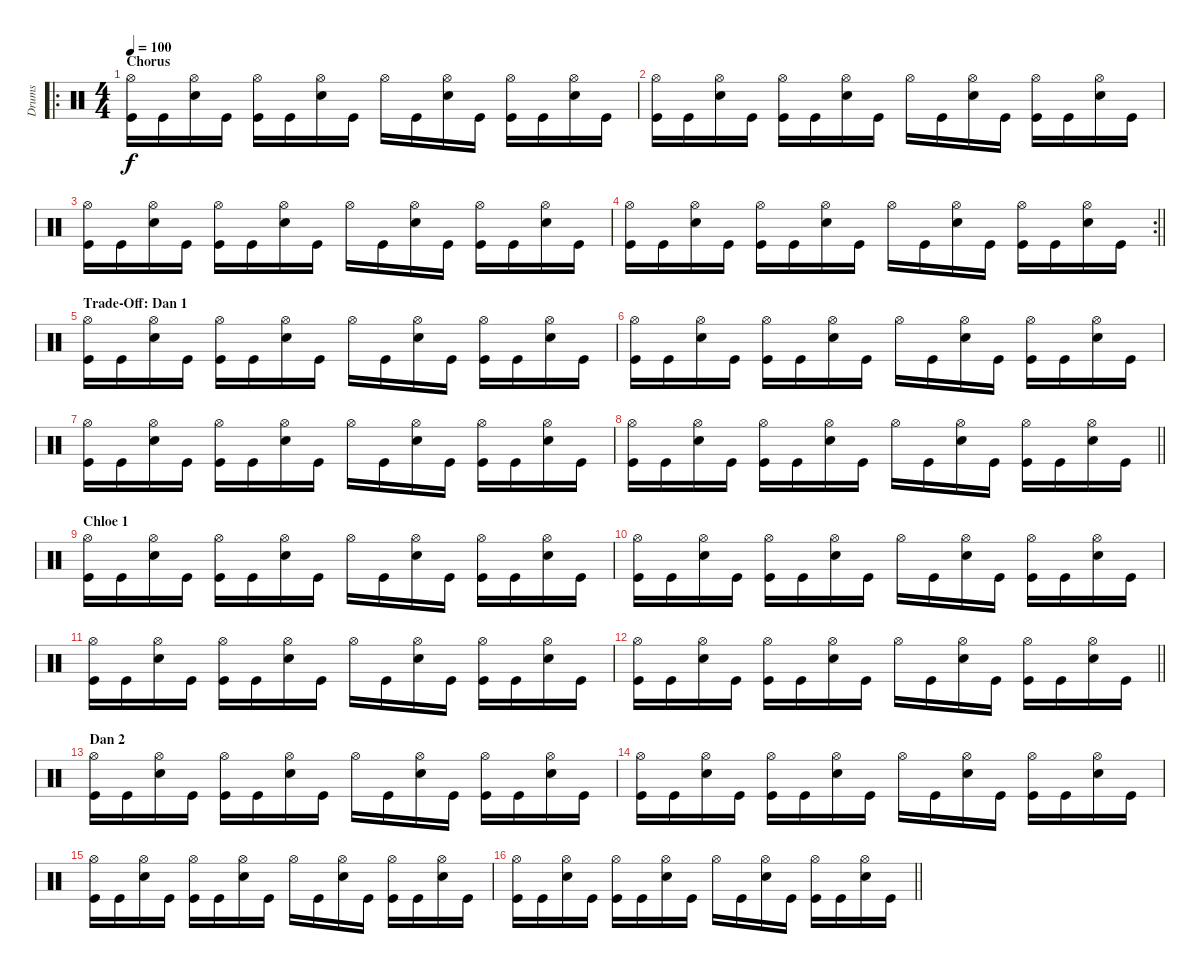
\track ("Drums" "Drums") {instrument percussion}
\staff {score}
\articulation defaults
\ro
\ts (4 4)
\section ("" "Chorus")
\tempo 100
\clef neutral
\ks c
("Hi-Hat (open)" "Kick (hit)").16{dy f} "Kick (hit)".16 ("Hi-Hat (open)" "Snare (hit) 2").16 "Kick (hit)".16 ("Hi-Hat (open)" "Kick (hit)").16 "Kick (hit)".16 ("Hi-Hat (open)" "Snare (hit) 2").16 "Kick (hit)".16 "Hi-Hat (open)".16 "Kick (hit)".16 ("Hi-Hat (open)" "Snare (hit) 2").16 "Kick (hit)".16 ("Hi-Hat (open)" "Kick (hit)").16 "Kick (hit)".16 ("Hi-Hat (open)" "Snare (hit) 2").16 "Kick (hit)".16 |
("Hi-Hat (open)" "Kick (hit)").16 "Kick (hit)".16 ("Hi-Hat (open)" "Snare (hit) 2").16 "Kick (hit)".16 ("Hi-Hat (open)" "Kick (hit)").16 "Kick (hit)".16 ("Hi-Hat (open)" "Snare (hit) 2").16 "Kick (hit)".16 "Hi-Hat (open)".16 "Kick (hit)".16 ("Hi-Hat (open)" "Snare (hit) 2").16 "Kick (hit)".16 ("Hi-Hat (open)" "Kick (hit)").16 "Kick (hit)".16 ("Hi-Hat (open)" "Snare (hit) 2").16 "Kick (hit)".16 |
("Hi-Hat (open)" "Kick (hit)").16 "Kick (hit)".16 ("Hi-Hat (open)" "Snare (hit) 2").16 "Kick (hit)".16 ("Hi-Hat (open)" "Kick (hit)").16 "Kick (hit)".16 ("Hi-Hat (open)" "Snare (hit) 2").16 "Kick (hit)".16 "Hi-Hat (open)".16 "Kick (hit)".16 ("Hi-Hat (open)" "Snare (hit) 2").16 "Kick (hit)".16 ("Hi-Hat (open)" "Kick (hit)").16 "Kick (hit)".16 ("Hi-Hat (open)" "Snare (hit) 2").16 "Kick (hit)".16 |
\rc 2
\barLineRight lightlight
("Hi-Hat (open)" "Kick (hit)").16 "Kick (hit)".16 ("Hi-Hat (open)" "Snare (hit) 2").16 "Kick (hit)".16 ("Hi-Hat (open)" "Kick (hit)").16 "Kick (hit)".16 ("Hi-Hat (open)" "Snare (hit) 2").16 "Kick (hit)".16 "Hi-Hat (open)".16 "Kick (hit)".16 ("Hi-Hat (open)" "Snare (hit) 2").16 "Kick (hit)".16 ("Hi-Hat (open)" "Kick (hit)").16 "Kick (hit)".16 ("Hi-Hat (open)" "Snare (hit) 2").16 "Kick (hit)".16 |
\section ("" "Trade-Off: Dan 1")
("Hi-Hat (open)" "Kick (hit)").16 "Kick (hit)".16 ("Hi-Hat (open)" "Snare (hit) 2").16 "Kick (hit)".16 ("Hi-Hat (open)" "Kick (hit)").16 "Kick (hit)".16 ("Hi-Hat (open)" "Snare (hit) 2").16 "Kick (hit)".16 "Hi-Hat (open)".16 "Kick (hit)".16 ("Hi-Hat (open)" "Snare (hit) 2").16 "Kick (hit)".16 ("Hi-Hat (open)" "Kick (hit)").16 "Kick (hit)".16 ("Hi-Hat (open)" "Snare (hit) 2").16 "Kick (hit)".16 |
("Hi-Hat (open)" "Kick (hit)").16 "Kick (hit)".16 ("Hi-Hat (open)" "Snare (hit) 2").16 "Kick (hit)".16 ("Hi-Hat (open)" "Kick (hit)").16 "Kick (hit)".16 ("Hi-Hat (open)" "Snare (hit) 2").16 "Kick (hit)".16 "Hi-Hat (open)".16 "Kick (hit)".16 ("Hi-Hat (open)" "Snare (hit) 2").16 "Kick (hit)".16 ("Hi-Hat (open)" "Kick (hit)").16 "Kick (hit)".16 ("Hi-Hat (open)" "Snare (hit) 2").16 "Kick (hit)".16 |
("Hi-Hat (open)" "Kick (hit)").16 "Kick (hit)".16 ("Hi-Hat (open)" "Snare (hit) 2").16 "Kick (hit)".16 ("Hi-Hat (open)" "Kick (hit)").16 "Kick (hit)".16 ("Hi-Hat (open)" "Snare (hit) 2").16 "Kick (hit)".16 "Hi-Hat (open)".16 "Kick (hit)".16 ("Hi-Hat (open)" "Snare (hit) 2").16 "Kick (hit)".16 ("Hi-Hat (open)" "Kick (hit)").16 "Kick (hit)".16 ("Hi-Hat (open)" "Snare (hit) 2").16 "Kick (hit)".16 |
\barLineRight lightlight
("Hi-Hat (open)" "Kick (hit)").16 "Kick (hit)".16 ("Hi-Hat (open)" "Snare (hit) 2").16 "Kick (hit)".16 ("Hi-Hat (open)" "Kick (hit)").16 "Kick (hit)".16 ("Hi-Hat (open)" "Snare (hit) 2").16 "Kick (hit)".16 "Hi-Hat (open)".16 "Kick (hit)".16 ("Hi-Hat (open)" "Snare (hit) 2").16 "Kick (hit)".16 ("Hi-Hat (open)" "Kick (hit)").16 "Kick (hit)".16 ("Hi-Hat (open)" "Snare (hit) 2").16 "Kick (hit)".16 |
\section ("" "Chloe 1")
("Hi-Hat (open)" "Kick (hit)").16 "Kick (hit)".16 ("Hi-Hat (open)" "Snare (hit) 2").16 "Kick (hit)".16 ("Hi-Hat (open)" "Kick (hit)").16 "Kick (hit)".16 ("Hi-Hat (open)" "Snare (hit) 2").16 "Kick (hit)".16 "Hi-Hat (open)".16 "Kick (hit)".16 ("Hi-Hat (open)" "Snare (hit) 2").16 "Kick (hit)".16 ("Hi-Hat (open)" "Kick (hit)").16 "Kick (hit)".16 ("Hi-Hat (open)" "Snare (hit) 2").16 "Kick (hit)".16 |
("Hi-Hat (open)" "Kick (hit)").16 "Kick (hit)".16 ("Hi-Hat (open)" "Snare (hit) 2").16 "Kick (hit)".16 ("Hi-Hat (open)" "Kick (hit)").16 "Kick (hit)".16 ("Hi-Hat (open)" "Snare (hit) 2").16 "Kick (hit)".16 "Hi-Hat (open)".16 "Kick (hit)".16 ("Hi-Hat (open)" "Snare (hit) 2").16 "Kick (hit)".16 ("Hi-Hat (open)" "Kick (hit)").16 "Kick (hit)".16 ("Hi-Hat (open)" "Snare (hit) 2").16 "Kick (hit)".16 |
("Hi-Hat (open)" "Kick (hit)").16 "Kick (hit)".16 ("Hi-Hat (open)" "Snare (hit) 2").16 "Kick (hit)".16 ("Hi-Hat (open)" "Kick (hit)").16 "Kick (hit)".16 ("Hi-Hat (open)" "Snare (hit) 2").16 "Kick (hit)".16 "Hi-Hat (open)".16 "Kick (hit)".16 ("Hi-Hat (open)" "Snare (hit) 2").16 "Kick (hit)".16 ("Hi-Hat (open)" "Kick (hit)").16 "Kick (hit)".16 ("Hi-Hat (open)" "Snare (hit) 2").16 "Kick (hit)".16 |
\barLineRight lightlight
("Hi-Hat (open)" "Kick (hit)").16 "Kick (hit)".16 ("Hi-Hat (open)" "Snare (hit) 2").16 "Kick (hit)".16 ("Hi-Hat (open)" "Kick (hit)").16 "Kick (hit)".16 ("Hi-Hat (open)" "Snare (hit) 2").16 "Kick (hit)".16 "Hi-Hat (open)".16 "Kick (hit)".16 ("Hi-Hat (open)" "Snare (hit) 2").16 "Kick (hit)".16 ("Hi-Hat (open)" "Kick (hit)").16 "Kick (hit)".16 ("Hi-Hat (open)" "Snare (hit) 2").16 "Kick (hit)".16 |
\section ("" "Dan 2")
("Hi-Hat (open)" "Kick (hit)").16 "Kick (hit)".16 ("Hi-Hat (open)" "Snare (hit) 2").16 "Kick (hit)".16 ("Hi-Hat (open)" "Kick (hit)").16 "Kick (hit)".16 ("Hi-Hat (open)" "Snare (hit) 2").16 "Kick (hit)".16 "Hi-Hat (open)".16 "Kick (hit)".16 ("Hi-Hat (open)" "Snare (hit) 2").16 "Kick (hit)".16 ("Hi-Hat (open)" "Kick (hit)").16 "Kick (hit)".16 ("Hi-Hat (open)" "Snare (hit) 2").16 "Kick (hit)".16 |
("Hi-Hat (open)" "Kick (hit)").16 "Kick (hit)".16 ("Hi-Hat (open)" "Snare (hit) 2").16 "Kick (hit)".16 ("Hi-Hat (open)" "Kick (hit)").16 "Kick (hit)".16 ("Hi-Hat (open)" "Snare (hit) 2").16 "Kick (hit)".16 "Hi-Hat (open)".16 "Kick (hit)".16 ("Hi-Hat (open)" "Snare (hit) 2").16 "Kick (hit)".16 ("Hi-Hat (open)" "Kick (hit)").16 "Kick (hit)".16 ("Hi-Hat (open)" "Snare (hit) 2").16 "Kick (hit)".16 |
("Hi-Hat (open)" "Kick (hit)").16 "Kick (hit)".16 ("Hi-Hat (open)" "Snare (hit) 2").16 "Kick (hit)".16 ("Hi-Hat (open)" "Kick (hit)").16 "Kick (hit)".16 ("Hi-Hat (open)" "Snare (hit) 2").16 "Kick (hit)".16 "Hi-Hat (open)".16 "Kick (hit)".16 ("Hi-Hat (open)" "Snare (hit) 2").16 "Kick (hit)".16 ("Hi-Hat (open)" "Kick (hit)").16 "Kick (hit)".16 ("Hi-Hat (open)" "Snare (hit) 2").16 "Kick (hit)".16 |
\barLineRight lightlight
("Hi-Hat (open)" "Kick (hit)").16 "Kick (hit)".16 ("Hi-Hat (open)" "Snare (hit) 2").16 "Kick (hit)".16 ("Hi-Hat (open)" "Kick (hit)").16 "Kick (hit)".16 ("Hi-Hat (open)" "Snare (hit) 2").16 "Kick (hit)".16 "Hi-Hat (open)".16 "Kick (hit)".16 ("Hi-Hat (open)" "Snare (hit) 2").16 "Kick (hit)".16 ("Hi-Hat (open)" "Kick (hit)").16 "Kick (hit)".16 ("Hi-Hat (open)" "Snare (hit) 2").16 "Kick (hit)".16
